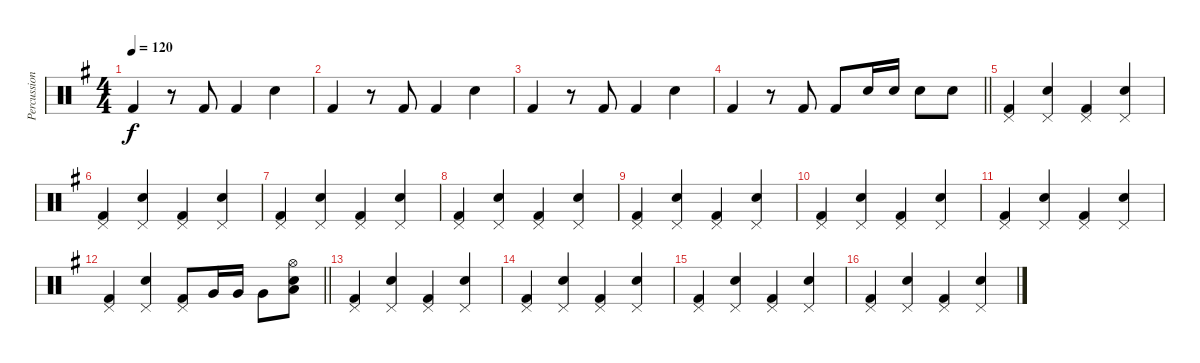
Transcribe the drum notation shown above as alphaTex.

\track ("Percussion" "Percussion") {instrument percussion}
\staff {score}
\articulation defaults
\ts (4 4)
\tempo 120
\clef neutral
\ks eminor "Kick (hit) 2".4{dy f}
r.8 "Kick (hit) 2".8 "Kick (hit) 2".4 "Snare (hit) 2".4 |
"Kick (hit) 2".4 r.8 "Kick (hit) 2".8 "Kick (hit) 2".4 "Snare (hit) 2".4 |
"Kick (hit) 2".4 r.8 "Kick (hit) 2".8 "Kick (hit) 2".4 "Snare (hit) 2".4 |
\barLineRight lightlight "Kick (hit) 2".4
r.8 "Kick (hit) 2".8 "Kick (hit) 2".8 "Snare (hit) 2".16 "Snare (hit) 2".16 "Snare (hit) 2".8 "Snare (hit) 2".8 |
("Kick (hit) 2" "Pedal Hi-Hat (hit)").4 ("Snare (hit) 2" "Pedal Hi-Hat (hit)").4 ("Kick (hit) 2" "Pedal Hi-Hat (hit)").4 ("Snare (hit) 2" "Pedal Hi-Hat (hit)").4 |
("Kick (hit) 2" "Pedal Hi-Hat (hit)").4 ("Snare (hit) 2" "Pedal Hi-Hat (hit)").4 ("Kick (hit) 2" "Pedal Hi-Hat (hit)").4 ("Snare (hit) 2" "Pedal Hi-Hat (hit)").4 |
("Kick (hit) 2" "Pedal Hi-Hat (hit)").4 ("Snare (hit) 2" "Pedal Hi-Hat (hit)").4 ("Kick (hit) 2" "Pedal Hi-Hat (hit)").4 ("Snare (hit) 2" "Pedal Hi-Hat (hit)").4 |
("Kick (hit) 2" "Pedal Hi-Hat (hit)").4 ("Snare (hit) 2" "Pedal Hi-Hat (hit)").4 ("Kick (hit) 2" "Pedal Hi-Hat (hit)").4 ("Snare (hit) 2" "Pedal Hi-Hat (hit)").4 |
("Kick (hit) 2" "Pedal Hi-Hat (hit)").4 ("Snare (hit) 2" "Pedal Hi-Hat (hit)").4 ("Kick (hit) 2" "Pedal Hi-Hat (hit)").4 ("Snare (hit) 2" "Pedal Hi-Hat (hit)").4 |
("Kick (hit) 2" "Pedal Hi-Hat (hit)").4 ("Snare (hit) 2" "Pedal Hi-Hat (hit)").4 ("Kick (hit) 2" "Pedal Hi-Hat (hit)").4 ("Snare (hit) 2" "Pedal Hi-Hat (hit)").4 |
("Kick (hit) 2" "Pedal Hi-Hat (hit)").4 ("Snare (hit) 2" "Pedal Hi-Hat (hit)").4 ("Kick (hit) 2" "Pedal Hi-Hat (hit)").4 ("Snare (hit) 2" "Pedal Hi-Hat (hit)").4 |
\barLineRight lightlight
("Kick (hit) 2" "Pedal Hi-Hat (hit)").4 ("Snare (hit) 2" "Pedal Hi-Hat (hit)").4 ("Kick (hit) 2" "Pedal Hi-Hat (hit)").8 "Very Low Tom (hit)".16 "Very Low Tom (hit)".16 "Very Low Tom (hit)".8 ("Snare (hit) 2" "Low Floor Tom (hit)" "Hi-Hat (open)").8 |
("Kick (hit) 2" "Pedal Hi-Hat (hit)").4 ("Snare (hit) 2" "Pedal Hi-Hat (hit)").4 ("Kick (hit) 2" "Pedal Hi-Hat (hit)").4 ("Snare (hit) 2" "Pedal Hi-Hat (hit)").4 |
("Kick (hit) 2" "Pedal Hi-Hat (hit)").4 ("Snare (hit) 2" "Pedal Hi-Hat (hit)").4 ("Kick (hit) 2" "Pedal Hi-Hat (hit)").4 ("Snare (hit) 2" "Pedal Hi-Hat (hit)").4 |
("Kick (hit) 2" "Pedal Hi-Hat (hit)").4 ("Snare (hit) 2" "Pedal Hi-Hat (hit)").4 ("Kick (hit) 2" "Pedal Hi-Hat (hit)").4 ("Snare (hit) 2" "Pedal Hi-Hat (hit)").4 |
("Kick (hit) 2" "Pedal Hi-Hat (hit)").4 ("Snare (hit) 2" "Pedal Hi-Hat (hit)").4 ("Kick (hit) 2" "Pedal Hi-Hat (hit)").4 ("Snare (hit) 2" "Pedal Hi-Hat (hit)").4
